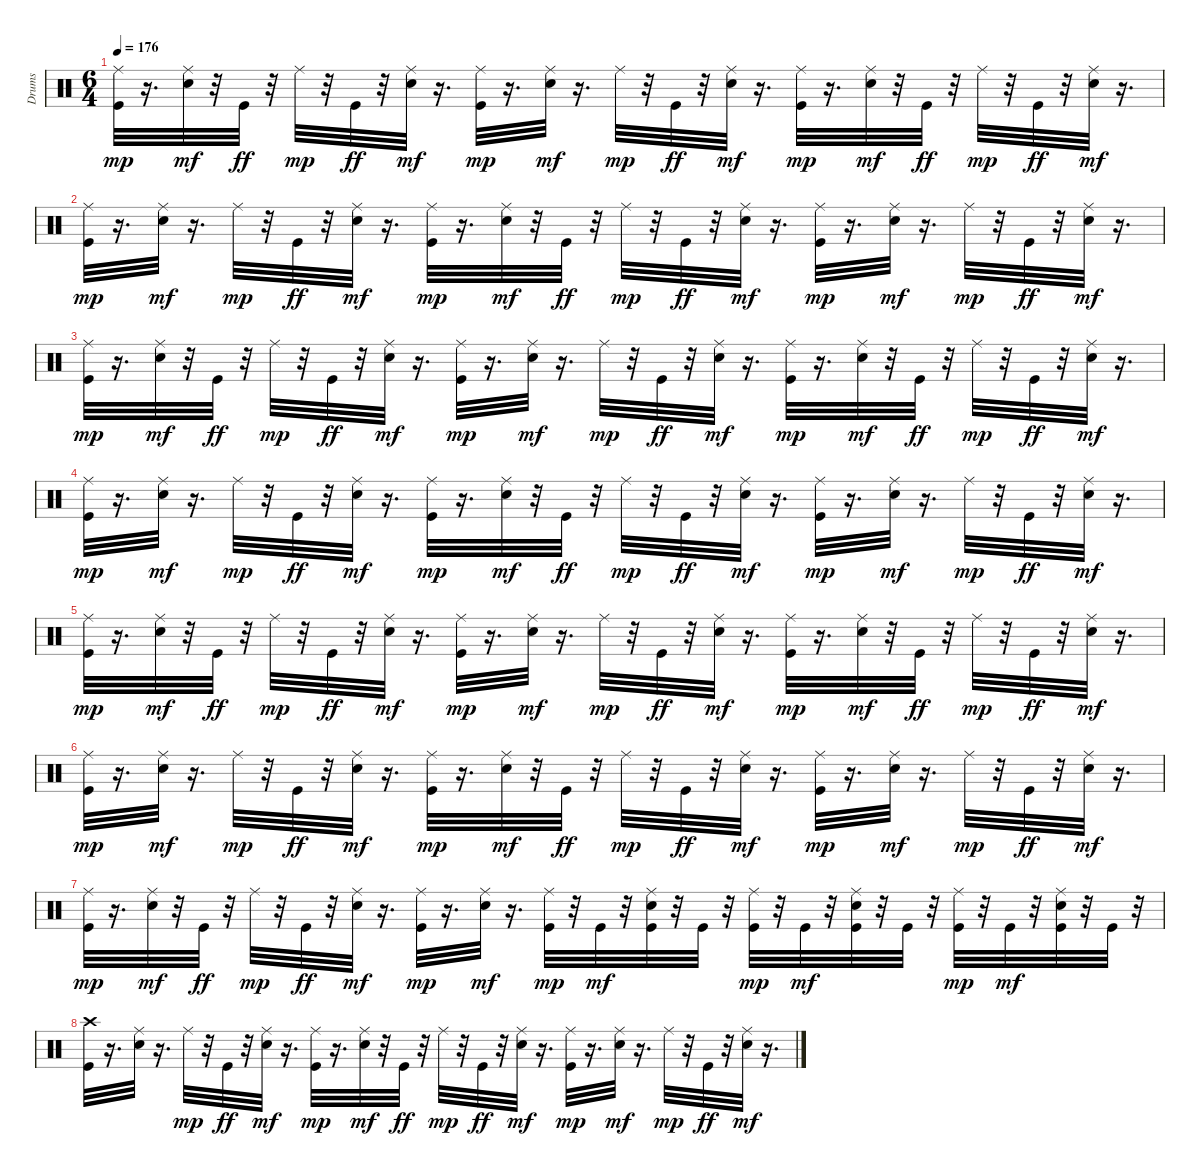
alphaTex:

\track ("Drums" "Drums") {instrument percussion}
\staff {score}
\articulation defaults
\ts (6 4)
\tempo 176
\clef neutral
\ks c
("Kick (hit)" "Ride (middle)").32{dy mp} r.16{d} ("Snare (hit) 2" "Ride (middle)").32{dy mf} r.32 "Kick (hit)".32{dy ff} r.32 "Ride (middle)".32{dy mp} r.32 "Kick (hit)".32{dy ff} r.32 ("Snare (hit) 2" "Ride (middle)").32{dy mf} r.16{d} ("Kick (hit)" "Ride (middle)").32{dy mp} r.16{d} ("Snare (hit) 2" "Ride (middle)").32{dy mf} r.16{d} "Ride (middle)".32{dy mp} r.32 "Kick (hit)".32{dy ff} r.32 ("Snare (hit) 2" "Ride (middle)").32{dy mf} r.16{d} ("Kick (hit)" "Ride (middle)").32{dy mp} r.16{d} ("Snare (hit) 2" "Ride (middle)").32{dy mf} r.32 "Kick (hit)".32{dy ff} r.32 "Ride (middle)".32{dy mp} r.32 "Kick (hit)".32{dy ff} r.32 ("Snare (hit) 2" "Ride (middle)").32{dy mf} r.16{d} |
("Kick (hit)" "Ride (middle)").32{dy mp} r.16{d} ("Snare (hit) 2" "Ride (middle)").32{dy mf} r.16{d} "Ride (middle)".32{dy mp} r.32 "Kick (hit)".32{dy ff} r.32 ("Snare (hit) 2" "Ride (middle)").32{dy mf} r.16{d} ("Kick (hit)" "Ride (middle)").32{dy mp} r.16{d} ("Snare (hit) 2" "Ride (middle)").32{dy mf} r.32 "Kick (hit)".32{dy ff} r.32 "Ride (middle)".32{dy mp} r.32 "Kick (hit)".32{dy ff} r.32 ("Snare (hit) 2" "Ride (middle)").32{dy mf} r.16{d} ("Kick (hit)" "Ride (middle)").32{dy mp} r.16{d} ("Snare (hit) 2" "Ride (middle)").32{dy mf} r.16{d} "Ride (middle)".32{dy mp} r.32 "Kick (hit)".32{dy ff} r.32 ("Snare (hit) 2" "Ride (middle)").32{dy mf} r.16{d} |
("Kick (hit)" "Ride (middle)").32{dy mp} r.16{d} ("Snare (hit) 2" "Ride (middle)").32{dy mf} r.32 "Kick (hit)".32{dy ff} r.32 "Ride (middle)".32{dy mp} r.32 "Kick (hit)".32{dy ff} r.32 ("Snare (hit) 2" "Ride (middle)").32{dy mf} r.16{d} ("Kick (hit)" "Ride (middle)").32{dy mp} r.16{d} ("Snare (hit) 2" "Ride (middle)").32{dy mf} r.16{d} "Ride (middle)".32{dy mp} r.32 "Kick (hit)".32{dy ff} r.32 ("Snare (hit) 2" "Ride (middle)").32{dy mf} r.16{d} ("Kick (hit)" "Ride (middle)").32{dy mp} r.16{d} ("Snare (hit) 2" "Ride (middle)").32{dy mf} r.32 "Kick (hit)".32{dy ff} r.32 "Ride (middle)".32{dy mp} r.32 "Kick (hit)".32{dy ff} r.32 ("Snare (hit) 2" "Ride (middle)").32{dy mf} r.16{d} |
("Kick (hit)" "Ride (middle)").32{dy mp} r.16{d} ("Snare (hit) 2" "Ride (middle)").32{dy mf} r.16{d} "Ride (middle)".32{dy mp} r.32 "Kick (hit)".32{dy ff} r.32 ("Snare (hit) 2" "Ride (middle)").32{dy mf} r.16{d} ("Kick (hit)" "Ride (middle)").32{dy mp} r.16{d} ("Snare (hit) 2" "Ride (middle)").32{dy mf} r.32 "Kick (hit)".32{dy ff} r.32 "Ride (middle)".32{dy mp} r.32 "Kick (hit)".32{dy ff} r.32 ("Snare (hit) 2" "Ride (middle)").32{dy mf} r.16{d} ("Kick (hit)" "Ride (middle)").32{dy mp} r.16{d} ("Snare (hit) 2" "Ride (middle)").32{dy mf} r.16{d} "Ride (middle)".32{dy mp} r.32 "Kick (hit)".32{dy ff} r.32 ("Snare (hit) 2" "Ride (middle)").32{dy mf} r.16{d} |
("Kick (hit)" "Ride (middle)").32{dy mp} r.16{d} ("Snare (hit) 2" "Ride (middle)").32{dy mf} r.32 "Kick (hit)".32{dy ff} r.32 "Ride (middle)".32{dy mp} r.32 "Kick (hit)".32{dy ff} r.32 ("Snare (hit) 2" "Ride (middle)").32{dy mf} r.16{d} ("Kick (hit)" "Ride (middle)").32{dy mp} r.16{d} ("Snare (hit) 2" "Ride (middle)").32{dy mf} r.16{d} "Ride (middle)".32{dy mp} r.32 "Kick (hit)".32{dy ff} r.32 ("Snare (hit) 2" "Ride (middle)").32{dy mf} r.16{d} ("Kick (hit)" "Ride (middle)").32{dy mp} r.16{d} ("Snare (hit) 2" "Ride (middle)").32{dy mf} r.32 "Kick (hit)".32{dy ff} r.32 "Ride (middle)".32{dy mp} r.32 "Kick (hit)".32{dy ff} r.32 ("Snare (hit) 2" "Ride (middle)").32{dy mf} r.16{d} |
("Kick (hit)" "Ride (middle)").32{dy mp} r.16{d} ("Snare (hit) 2" "Ride (middle)").32{dy mf} r.16{d} "Ride (middle)".32{dy mp} r.32 "Kick (hit)".32{dy ff} r.32 ("Snare (hit) 2" "Ride (middle)").32{dy mf} r.16{d} ("Kick (hit)" "Ride (middle)").32{dy mp} r.16{d} ("Snare (hit) 2" "Ride (middle)").32{dy mf} r.32 "Kick (hit)".32{dy ff} r.32 "Ride (middle)".32{dy mp} r.32 "Kick (hit)".32{dy ff} r.32 ("Snare (hit) 2" "Ride (middle)").32{dy mf} r.16{d} ("Kick (hit)" "Ride (middle)").32{dy mp} r.16{d} ("Snare (hit) 2" "Ride (middle)").32{dy mf} r.16{d} "Ride (middle)".32{dy mp} r.32 "Kick (hit)".32{dy ff} r.32 ("Snare (hit) 2" "Ride (middle)").32{dy mf} r.16{d} |
("Kick (hit)" "Ride (middle)").32{dy mp} r.16{d} ("Snare (hit) 2" "Ride (middle)").32{dy mf} r.32 "Kick (hit)".32{dy ff} r.32 "Ride (middle)".32{dy mp} r.32 "Kick (hit)".32{dy ff} r.32 ("Snare (hit) 2" "Ride (middle)").32{dy mf} r.16{d} ("Kick (hit)" "Ride (middle)").32{dy mp} r.16{d} ("Snare (hit) 2" "Ride (middle)").32{dy mf} r.16{d} ("Kick (hit)" "Ride (middle)").32{dy mp} r.32 "Kick (hit)".32{dy mf} r.32 ("Kick (hit)" "Snare (hit) 2" "Ride (middle)").32 r.32 "Kick (hit)".32 r.32 ("Kick (hit)" "Ride (middle)").32{dy mp} r.32 "Kick (hit)".32{dy mf} r.32 ("Kick (hit)" "Snare (hit) 2" "Ride (middle)").32 r.32 "Kick (hit)".32 r.32 ("Kick (hit)" "Ride (middle)").32{dy mp} r.32 "Kick (hit)".32{dy mf} r.32 ("Kick (hit)" "Snare (hit) 2" "Ride (middle)").32 r.32 "Kick (hit)".32 r.32 |
("Kick (hit)" "Crash high (hit)").32 r.16{d} ("Snare (hit) 2" "Ride (middle)").32 r.16{d} "Ride (middle)".32{dy mp} r.32 "Kick (hit)".32{dy ff} r.32 ("Snare (hit) 2" "Ride (middle)").32{dy mf} r.16{d} ("Kick (hit)" "Ride (middle)").32{dy mp} r.16{d} ("Snare (hit) 2" "Ride (middle)").32{dy mf} r.32 "Kick (hit)".32{dy ff} r.32 "Ride (middle)".32{dy mp} r.32 "Kick (hit)".32{dy ff} r.32 ("Snare (hit) 2" "Ride (middle)").32{dy mf} r.16{d} ("Kick (hit)" "Ride (middle)").32{dy mp} r.16{d} ("Snare (hit) 2" "Ride (middle)").32{dy mf} r.16{d} "Ride (middle)".32{dy mp} r.32 "Kick (hit)".32{dy ff} r.32 ("Snare (hit) 2" "Ride (middle)").32{dy mf} r.16{d}
